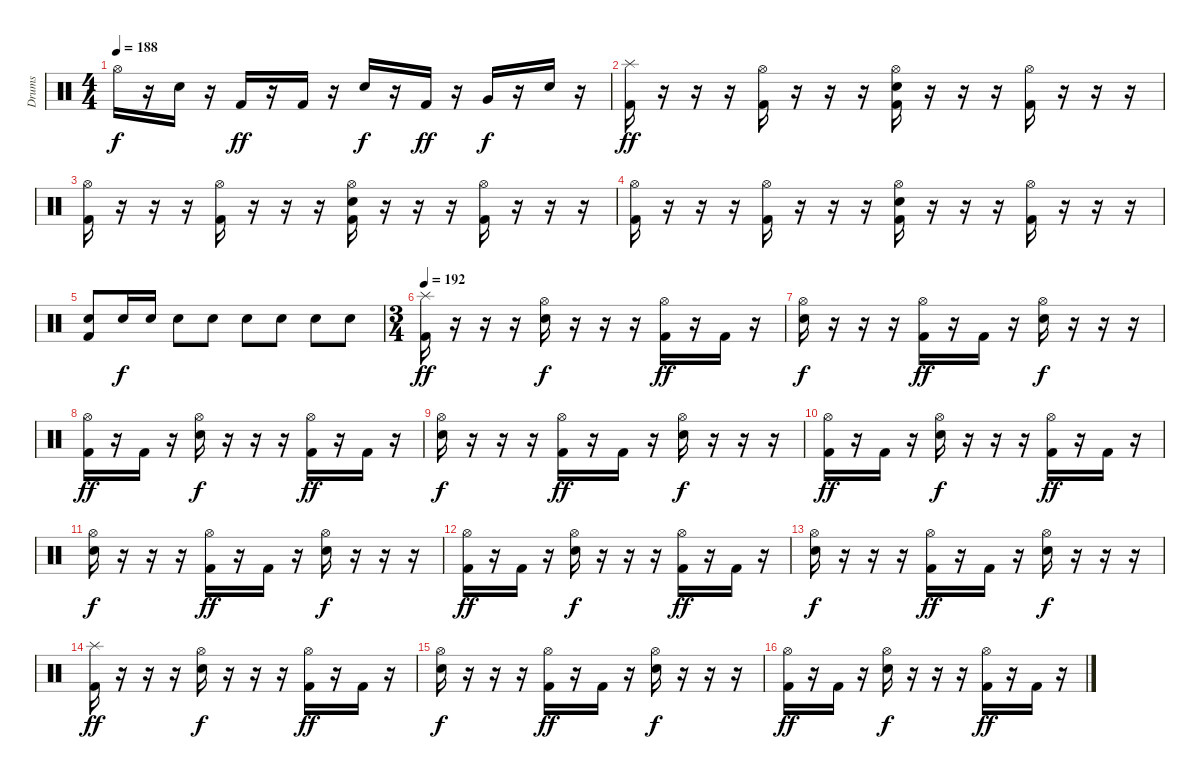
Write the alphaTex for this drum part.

\track ("Drums" "Drums") {instrument percussion}
\staff {score}
\articulation defaults
\ts (4 4)
\tempo 188
\clef neutral
\ks c "Hi-Hat (open)".16{dy f}
r.16 "Electric Snare (hit)".16 r.16 "Kick (hit) 2".16{dy ff} r.16 "Kick (hit) 2".16 r.16 "Electric Snare (hit)".16{dy f} r.16 "Kick (hit) 2".16{dy ff} r.16 "Very Low Tom (hit)".16{dy f} r.16 "Electric Snare (hit)".16 r.16 |
("Splash (hit)" "Kick (hit) 2").16{dy ff} r.16 r.16 r.16 ("Hi-Hat (open)" "Kick (hit) 2").16 r.16 r.16 r.16 ("Hi-Hat (open)" "Electric Snare (hit)" "Kick (hit) 2").16 r.16 r.16 r.16 ("Hi-Hat (open)" "Kick (hit) 2").16 r.16 r.16 r.16 |
("Hi-Hat (open)" "Kick (hit) 2").16 r.16 r.16 r.16 ("Hi-Hat (open)" "Kick (hit) 2").16 r.16 r.16 r.16 ("Hi-Hat (open)" "Electric Snare (hit)" "Kick (hit) 2").16 r.16 r.16 r.16 ("Hi-Hat (open)" "Kick (hit) 2").16 r.16 r.16 r.16 |
("Hi-Hat (open)" "Kick (hit) 2").16 r.16 r.16 r.16 ("Hi-Hat (open)" "Kick (hit) 2").16 r.16 r.16 r.16 ("Hi-Hat (open)" "Electric Snare (hit)" "Kick (hit) 2").16 r.16 r.16 r.16 ("Hi-Hat (open)" "Kick (hit) 2").16 r.16 r.16 r.16 |
("Electric Snare (hit)" "Kick (hit) 2").8 "Electric Snare (hit)".16{dy f} "Electric Snare (hit)".16 "Electric Snare (hit)".8 "Electric Snare (hit)".8 "Electric Snare (hit)".8 "Electric Snare (hit)".8 "Electric Snare (hit)".8 "Electric Snare (hit)".8 |
\ts (3 4)
\tempo 192
("Splash (hit)" "Kick (hit) 2").16{dy ff} r.16 r.16 r.16 ("Hi-Hat (open)" "Electric Snare (hit)").16{dy f} r.16 r.16 r.16 ("Hi-Hat (open)" "Kick (hit) 2").16{dy ff} r.16 "Kick (hit) 2".16 r.16 |
("Hi-Hat (open)" "Electric Snare (hit)").16{dy f} r.16 r.16 r.16 ("Hi-Hat (open)" "Kick (hit) 2").16{dy ff} r.16 "Kick (hit) 2".16 r.16 ("Hi-Hat (open)" "Electric Snare (hit)").16{dy f} r.16 r.16 r.16 |
("Hi-Hat (open)" "Kick (hit) 2").16{dy ff} r.16 "Kick (hit) 2".16 r.16 ("Hi-Hat (open)" "Electric Snare (hit)").16{dy f} r.16 r.16 r.16 ("Hi-Hat (open)" "Kick (hit) 2").16{dy ff} r.16 "Kick (hit) 2".16 r.16 |
("Hi-Hat (open)" "Electric Snare (hit)").16{dy f} r.16 r.16 r.16 ("Hi-Hat (open)" "Kick (hit) 2").16{dy ff} r.16 "Kick (hit) 2".16 r.16 ("Hi-Hat (open)" "Electric Snare (hit)").16{dy f} r.16 r.16 r.16 |
("Hi-Hat (open)" "Kick (hit) 2").16{dy ff} r.16 "Kick (hit) 2".16 r.16 ("Hi-Hat (open)" "Electric Snare (hit)").16{dy f} r.16 r.16 r.16 ("Hi-Hat (open)" "Kick (hit) 2").16{dy ff} r.16 "Kick (hit) 2".16 r.16 |
("Hi-Hat (open)" "Electric Snare (hit)").16{dy f} r.16 r.16 r.16 ("Hi-Hat (open)" "Kick (hit) 2").16{dy ff} r.16 "Kick (hit) 2".16 r.16 ("Hi-Hat (open)" "Electric Snare (hit)").16{dy f} r.16 r.16 r.16 |
("Hi-Hat (open)" "Kick (hit) 2").16{dy ff} r.16 "Kick (hit) 2".16 r.16 ("Hi-Hat (open)" "Electric Snare (hit)").16{dy f} r.16 r.16 r.16 ("Hi-Hat (open)" "Kick (hit) 2").16{dy ff} r.16 "Kick (hit) 2".16 r.16 |
("Hi-Hat (open)" "Electric Snare (hit)").16{dy f} r.16 r.16 r.16 ("Hi-Hat (open)" "Kick (hit) 2").16{dy ff} r.16 "Kick (hit) 2".16 r.16 ("Hi-Hat (open)" "Electric Snare (hit)").16{dy f} r.16 r.16 r.16 |
("Splash (hit)" "Kick (hit) 2").16{dy ff} r.16 r.16 r.16 ("Hi-Hat (open)" "Electric Snare (hit)").16{dy f} r.16 r.16 r.16 ("Hi-Hat (open)" "Kick (hit) 2").16{dy ff} r.16 "Kick (hit) 2".16 r.16 |
("Hi-Hat (open)" "Electric Snare (hit)").16{dy f} r.16 r.16 r.16 ("Hi-Hat (open)" "Kick (hit) 2").16{dy ff} r.16 "Kick (hit) 2".16 r.16 ("Hi-Hat (open)" "Electric Snare (hit)").16{dy f} r.16 r.16 r.16 |
("Hi-Hat (open)" "Kick (hit) 2").16{dy ff} r.16 "Kick (hit) 2".16 r.16 ("Hi-Hat (open)" "Electric Snare (hit)").16{dy f} r.16 r.16 r.16 ("Hi-Hat (open)" "Kick (hit) 2").16{dy ff} r.16 "Kick (hit) 2".16 r.16
